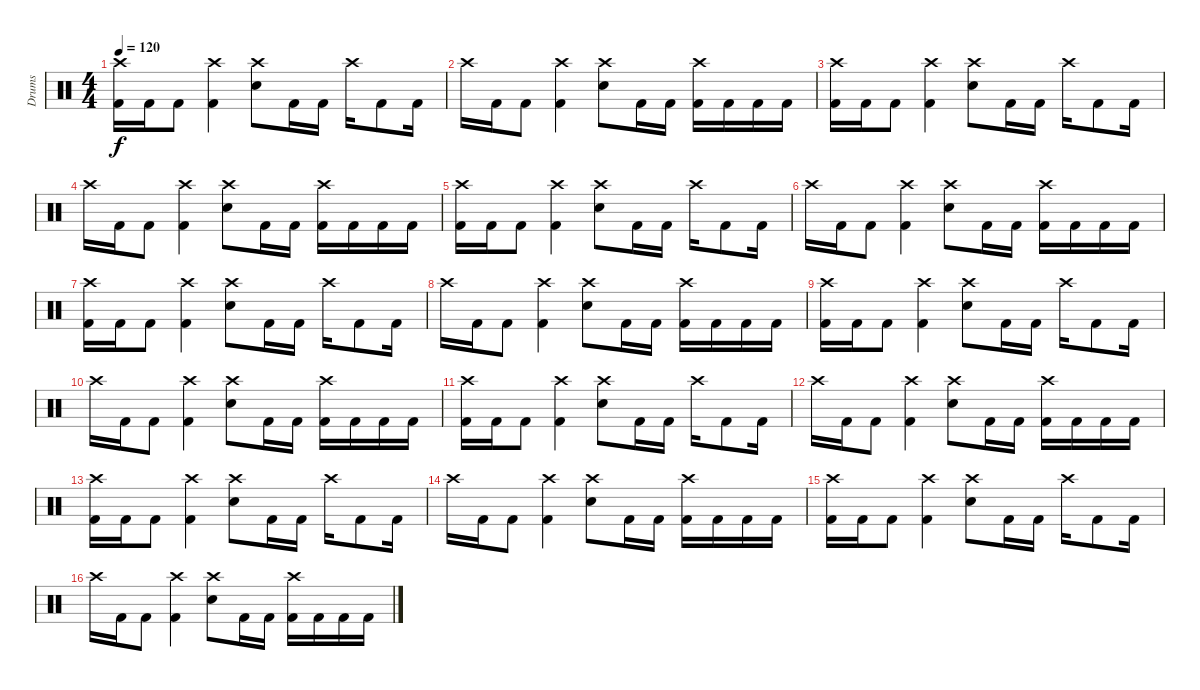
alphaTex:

\track ("Drums" "Drums") {instrument percussion}
\staff {score}
\articulation defaults
\ts (4 4)
\tempo 120
\clef neutral
\ks c
("Crash high (hit)" "Kick (hit) 2").16{dy f} "Kick (hit) 2".16 "Kick (hit) 2".8 ("Crash high (hit)" "Kick (hit) 2").4 ("Crash high (hit)" "Electric Snare (hit)").8 "Kick (hit) 2".16 "Kick (hit) 2".16 "Crash high (hit)".16 "Kick (hit) 2".8 "Kick (hit) 2".16 |
"Crash high (hit)".16 "Kick (hit) 2".16 "Kick (hit) 2".8 ("Crash high (hit)" "Kick (hit) 2").4 ("Crash high (hit)" "Electric Snare (hit)").8 "Kick (hit) 2".16 "Kick (hit) 2".16 ("Crash high (hit)" "Kick (hit) 2").16 "Kick (hit) 2".16 "Kick (hit) 2".16 "Kick (hit) 2".16 |
("Crash high (hit)" "Kick (hit) 2").16 "Kick (hit) 2".16 "Kick (hit) 2".8 ("Crash high (hit)" "Kick (hit) 2").4 ("Crash high (hit)" "Electric Snare (hit)").8 "Kick (hit) 2".16 "Kick (hit) 2".16 "Crash high (hit)".16 "Kick (hit) 2".8 "Kick (hit) 2".16 |
"Crash high (hit)".16 "Kick (hit) 2".16 "Kick (hit) 2".8 ("Crash high (hit)" "Kick (hit) 2").4 ("Crash high (hit)" "Electric Snare (hit)").8 "Kick (hit) 2".16 "Kick (hit) 2".16 ("Crash high (hit)" "Kick (hit) 2").16 "Kick (hit) 2".16 "Kick (hit) 2".16 "Kick (hit) 2".16 |
("Crash high (hit)" "Kick (hit) 2").16 "Kick (hit) 2".16 "Kick (hit) 2".8 ("Crash high (hit)" "Kick (hit) 2").4 ("Crash high (hit)" "Electric Snare (hit)").8 "Kick (hit) 2".16 "Kick (hit) 2".16 "Crash high (hit)".16 "Kick (hit) 2".8 "Kick (hit) 2".16 |
"Crash high (hit)".16 "Kick (hit) 2".16 "Kick (hit) 2".8 ("Crash high (hit)" "Kick (hit) 2").4 ("Crash high (hit)" "Electric Snare (hit)").8 "Kick (hit) 2".16 "Kick (hit) 2".16 ("Crash high (hit)" "Kick (hit) 2").16 "Kick (hit) 2".16 "Kick (hit) 2".16 "Kick (hit) 2".16 |
("Crash high (hit)" "Kick (hit) 2").16 "Kick (hit) 2".16 "Kick (hit) 2".8 ("Crash high (hit)" "Kick (hit) 2").4 ("Crash high (hit)" "Electric Snare (hit)").8 "Kick (hit) 2".16 "Kick (hit) 2".16 "Crash high (hit)".16 "Kick (hit) 2".8 "Kick (hit) 2".16 |
"Crash high (hit)".16 "Kick (hit) 2".16 "Kick (hit) 2".8 ("Crash high (hit)" "Kick (hit) 2").4 ("Crash high (hit)" "Electric Snare (hit)").8 "Kick (hit) 2".16 "Kick (hit) 2".16 ("Crash high (hit)" "Kick (hit) 2").16 "Kick (hit) 2".16 "Kick (hit) 2".16 "Kick (hit) 2".16 |
("Crash high (hit)" "Kick (hit) 2").16{volume 6} "Kick (hit) 2".16 "Kick (hit) 2".8 ("Crash high (hit)" "Kick (hit) 2").4 ("Crash high (hit)" "Electric Snare (hit)").8 "Kick (hit) 2".16 "Kick (hit) 2".16 "Crash high (hit)".16 "Kick (hit) 2".8 "Kick (hit) 2".16 |
"Crash high (hit)".16 "Kick (hit) 2".16 "Kick (hit) 2".8 ("Crash high (hit)" "Kick (hit) 2").4 ("Crash high (hit)" "Electric Snare (hit)").8 "Kick (hit) 2".16 "Kick (hit) 2".16 ("Crash high (hit)" "Kick (hit) 2").16 "Kick (hit) 2".16 "Kick (hit) 2".16 "Kick (hit) 2".16 |
("Crash high (hit)" "Kick (hit) 2").16 "Kick (hit) 2".16 "Kick (hit) 2".8 ("Crash high (hit)" "Kick (hit) 2").4 ("Crash high (hit)" "Electric Snare (hit)").8 "Kick (hit) 2".16 "Kick (hit) 2".16 "Crash high (hit)".16 "Kick (hit) 2".8 "Kick (hit) 2".16 |
"Crash high (hit)".16 "Kick (hit) 2".16 "Kick (hit) 2".8 ("Crash high (hit)" "Kick (hit) 2").4 ("Crash high (hit)" "Electric Snare (hit)").8 "Kick (hit) 2".16 "Kick (hit) 2".16 ("Crash high (hit)" "Kick (hit) 2").16 "Kick (hit) 2".16 "Kick (hit) 2".16 "Kick (hit) 2".16 |
("Crash high (hit)" "Kick (hit) 2").16{volume 0} "Kick (hit) 2".16 "Kick (hit) 2".8 ("Crash high (hit)" "Kick (hit) 2").4 ("Crash high (hit)" "Electric Snare (hit)").8 "Kick (hit) 2".16 "Kick (hit) 2".16 "Crash high (hit)".16 "Kick (hit) 2".8 "Kick (hit) 2".16 |
"Crash high (hit)".16 "Kick (hit) 2".16 "Kick (hit) 2".8 ("Crash high (hit)" "Kick (hit) 2").4 ("Crash high (hit)" "Electric Snare (hit)").8 "Kick (hit) 2".16 "Kick (hit) 2".16 ("Crash high (hit)" "Kick (hit) 2").16 "Kick (hit) 2".16 "Kick (hit) 2".16 "Kick (hit) 2".16 |
("Crash high (hit)" "Kick (hit) 2").16 "Kick (hit) 2".16 "Kick (hit) 2".8 ("Crash high (hit)" "Kick (hit) 2").4 ("Crash high (hit)" "Electric Snare (hit)").8 "Kick (hit) 2".16 "Kick (hit) 2".16 "Crash high (hit)".16 "Kick (hit) 2".8 "Kick (hit) 2".16 |
"Crash high (hit)".16 "Kick (hit) 2".16 "Kick (hit) 2".8 ("Crash high (hit)" "Kick (hit) 2").4 ("Crash high (hit)" "Electric Snare (hit)").8 "Kick (hit) 2".16 "Kick (hit) 2".16 ("Crash high (hit)" "Kick (hit) 2").16 "Kick (hit) 2".16 "Kick (hit) 2".16 "Kick (hit) 2".16
